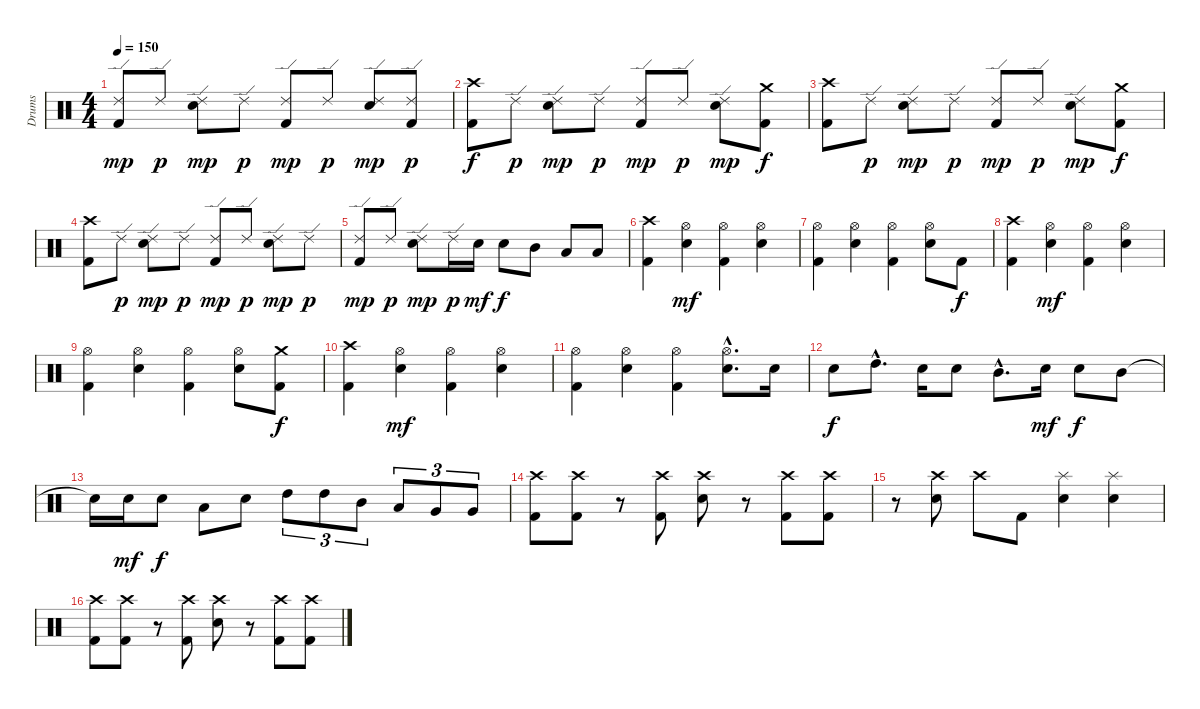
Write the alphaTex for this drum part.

\track ("Drums" "Drums") {instrument percussion}
\staff {score}
\articulation defaults
\ts (4 4)
\tempo 150
\clef neutral
\ks c
("Ride (edge) 2" "Kick (hit) 2").8{dy mp} "Ride (edge) 2".8{dy p} ("Ride (edge) 2" "Electric Snare (hit)").8{dy mp} "Ride (edge) 2".8{dy p} ("Ride (edge) 2" "Kick (hit) 2").8{dy mp} "Ride (edge) 2".8{dy p} ("Ride (edge) 2" "Electric Snare (hit)").8{dy mp} ("Ride (edge) 2" "Kick (hit) 2").8{dy p} |
("Crash high (hit)" "Kick (hit) 2").8{dy f} "Ride (edge) 2".8{dy p} ("Ride (edge) 2" "Electric Snare (hit)").8{dy mp} "Ride (edge) 2".8{dy p} ("Ride (edge) 2" "Kick (hit) 2").8{dy mp} "Ride (edge) 2".8{dy p} ("Ride (edge) 2" "Electric Snare (hit)").8{dy mp} ("Crash medium (hit)" "Kick (hit) 2").8{dy f} |
("Crash high (hit)" "Kick (hit) 2").8 "Ride (edge) 2".8{dy p} ("Ride (edge) 2" "Electric Snare (hit)").8{dy mp} "Ride (edge) 2".8{dy p} ("Ride (edge) 2" "Kick (hit) 2").8{dy mp} "Ride (edge) 2".8{dy p} ("Ride (edge) 2" "Electric Snare (hit)").8{dy mp} ("Crash medium (hit)" "Kick (hit) 2").8{dy f} |
("Crash high (hit)" "Kick (hit) 2").8 "Ride (edge) 2".8{dy p} ("Ride (edge) 2" "Electric Snare (hit)").8{dy mp} "Ride (edge) 2".8{dy p} ("Ride (edge) 2" "Kick (hit) 2").8{dy mp} "Ride (edge) 2".8{dy p} ("Ride (edge) 2" "Electric Snare (hit)").8{dy mp} "Ride (edge) 2".8{dy p} |
("Ride (edge) 2" "Kick (hit) 2").8{dy mp} "Ride (edge) 2".8{dy p} ("Ride (edge) 2" "Electric Snare (hit)").8{dy mp} "Ride (edge) 2".16{dy p} "Electric Snare (hit)".16{dy mf} "Electric Snare (hit)".8{dy f} "Mid Tom (hit)".8 "Low Tom (hit)".8 "Low Tom (hit)".8 |
("Crash high (hit)" "Kick (hit) 2").4 ("Hi-Hat (open)" "Electric Snare (hit)").4{dy mf} ("Hi-Hat (open)" "Kick (hit) 2").4 ("Hi-Hat (open)" "Electric Snare (hit)").4 |
("Hi-Hat (open)" "Kick (hit) 2").4 ("Hi-Hat (open)" "Electric Snare (hit)").4 ("Hi-Hat (open)" "Kick (hit) 2").4 ("Hi-Hat (open)" "Electric Snare (hit)").8 "Kick (hit) 2".8{dy f} |
("Crash high (hit)" "Kick (hit) 2").4 ("Hi-Hat (open)" "Electric Snare (hit)").4{dy mf} ("Hi-Hat (open)" "Kick (hit) 2").4 ("Hi-Hat (open)" "Electric Snare (hit)").4 |
("Hi-Hat (open)" "Kick (hit) 2").4 ("Hi-Hat (open)" "Electric Snare (hit)").4 ("Hi-Hat (open)" "Kick (hit) 2").4 ("Hi-Hat (open)" "Electric Snare (hit)").8 ("Crash medium (hit)" "Kick (hit) 2").8{dy f} |
("Crash high (hit)" "Kick (hit) 2").4 ("Hi-Hat (open)" "Electric Snare (hit)").4{dy mf} ("Hi-Hat (open)" "Kick (hit) 2").4 ("Hi-Hat (open)" "Electric Snare (hit)").4 |
("Hi-Hat (open)" "Kick (hit) 2").4 ("Hi-Hat (open)" "Electric Snare (hit)").4 ("Hi-Hat (open)" "Kick (hit) 2").4 ("Hi-Hat (open)"{hac} "Electric Snare (hit)"{hac}).8{d} "Electric Snare (hit)".16 |
"Electric Snare (hit)".8{dy f} "High Tom (hit)"{hac}.8{d} "Electric Snare (hit)".16 "Electric Snare (hit)".8 "Mid Tom (hit)"{hac}.8{d} "Electric Snare (hit)".16{dy mf} "Electric Snare (hit)".8{dy f} "Mid Tom (hit)".8 |
"Snare (hit)"{t}.16 "Electric Snare (hit)".16{dy mf} "Electric Snare (hit)".8{dy f} "Low Tom (hit)".8 "Electric Snare (hit)".8 "High Tom (hit)".8{tu (3 2)} "High Tom (hit)".8{tu (3 2)} "Mid Tom (hit)".8{tu (3 2)} "Low Tom (hit)".8{tu (3 2)} "Very Low Tom (hit)".8{tu (3 2)} "Very Low Tom (hit)".8{tu (3 2)} |
("Crash high (hit)" "Kick (hit) 2").8 ("Crash high (hit)" "Kick (hit) 2").8 r.8 ("Crash high (hit)" "Kick (hit) 2").8 ("Crash high (hit)" "Electric Snare (hit)").8 r.8 ("Crash high (hit)" "Kick (hit) 2").8 ("Crash high (hit)" "Kick (hit) 2").8 |
r.8 ("Crash high (hit)" "Electric Snare (hit)").8 "Crash high (hit)".8 "Kick (hit) 2".8 ("Splash (hit)" "Electric Snare (hit)").4 ("Splash (hit)" "Electric Snare (hit)").4 |
("Crash high (hit)" "Kick (hit) 2").8 ("Crash high (hit)" "Kick (hit) 2").8 r.8 ("Crash high (hit)" "Kick (hit) 2").8 ("Crash high (hit)" "Electric Snare (hit)").8 r.8 ("Crash high (hit)" "Kick (hit) 2").8 ("Crash high (hit)" "Kick (hit) 2").8
